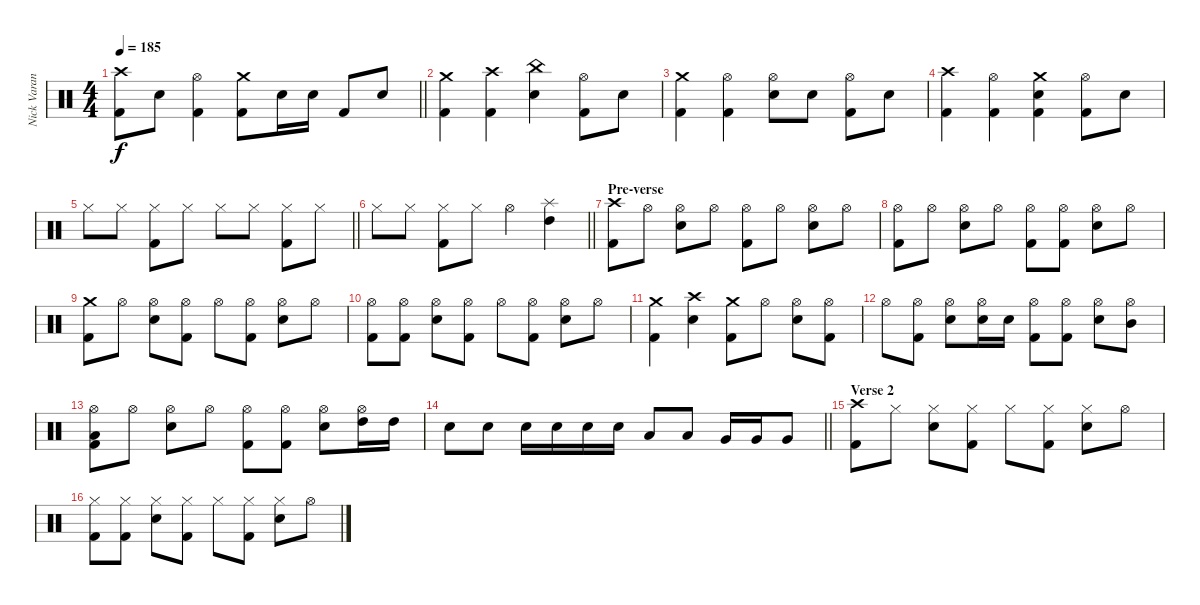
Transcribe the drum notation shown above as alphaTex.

\track ("Nick Varano (Drums)" "Nick Varan") {instrument percussion}
\staff {score}
\articulation defaults
\ts (4 4)
\tempo 185
\clef neutral
\barLineRight lightlight
\ks c
("Crash high (hit)" "Kick (hit) 2").8{dy f} "Electric Snare (hit)".8 ("Hi-Hat (open)" "Kick (hit) 2").4 ("Crash medium (hit)" "Kick (hit) 2").8 "Electric Snare (hit)".16 "Electric Snare (hit)".16 "Kick (hit) 2".8 "Electric Snare (hit)".8 |
("Crash medium (hit)" "Kick (hit) 2").4 ("Crash high (hit)" "Kick (hit) 2").4 ("China (hit)" "Electric Snare (hit)").4 ("Hi-Hat (open)" "Kick (hit) 2").8 "Electric Snare (hit)".8 |
("Crash medium (hit)" "Kick (hit) 2").4 ("Hi-Hat (open)" "Kick (hit) 2").4 ("Hi-Hat (open)" "Electric Snare (hit)").8 "Electric Snare (hit)".8 ("Hi-Hat (open)" "Kick (hit) 2").8 "Electric Snare (hit)".8 |
("Crash high (hit)" "Kick (hit) 2").4 ("Hi-Hat (open)" "Kick (hit) 2").4 ("Crash medium (hit)" "Electric Snare (hit)" "Kick (hit) 2").4 ("Hi-Hat (open)" "Kick (hit) 2").8 "Electric Snare (hit)".8 |
\barLineRight lightlight "Hi-Hat (closed)".8 "Hi-Hat (closed)".8
("Hi-Hat (closed)" "Kick (hit) 2").8 "Hi-Hat (closed)".8 "Hi-Hat (closed)".8 "Hi-Hat (closed)".8 ("Hi-Hat (closed)" "Kick (hit) 2").8 "Hi-Hat (closed)".8 |
\barLineRight lightlight "Hi-Hat (closed)".8 "Hi-Hat (closed)".8
("Hi-Hat (closed)" "Kick (hit) 2").8 "Hi-Hat (closed)".8 "Hi-Hat (open)".4 ("Splash (hit)" "High Tom (hit)").4 |
\section ("" "Pre-verse")
("Crash high (hit)" "Kick (hit) 2").8 "Hi-Hat (open)".8 ("Hi-Hat (open)" "Electric Snare (hit)").8 "Hi-Hat (open)".8 ("Hi-Hat (open)" "Kick (hit) 2").8 "Hi-Hat (open)".8 ("Hi-Hat (open)" "Electric Snare (hit)").8 "Hi-Hat (open)".8 |
("Hi-Hat (open)" "Kick (hit) 2").8 "Hi-Hat (open)".8 ("Hi-Hat (open)" "Electric Snare (hit)").8 "Hi-Hat (open)".8 ("Hi-Hat (open)" "Kick (hit) 2").8 ("Hi-Hat (open)" "Kick (hit) 2").8 ("Hi-Hat (open)" "Electric Snare (hit)").8 "Hi-Hat (open)".8 |
("Crash medium (hit)" "Kick (hit) 2").8 "Hi-Hat (open)".8 ("Hi-Hat (open)" "Electric Snare (hit)").8 ("Hi-Hat (open)" "Kick (hit) 2").8 "Hi-Hat (open)".8 ("Hi-Hat (open)" "Kick (hit) 2").8 ("Hi-Hat (open)" "Electric Snare (hit)").8 "Hi-Hat (open)".8 |
("Hi-Hat (open)" "Kick (hit) 2").8 ("Hi-Hat (open)" "Kick (hit) 2").8 ("Hi-Hat (open)" "Electric Snare (hit)").8 ("Hi-Hat (open)" "Kick (hit) 2").8 "Hi-Hat (open)".8 ("Hi-Hat (open)" "Kick (hit) 2").8 ("Hi-Hat (open)" "Electric Snare (hit)").8 "Hi-Hat (open)".8 |
("Crash medium (hit)" "Kick (hit) 2").4 ("Crash high (hit)" "Electric Snare (hit)").4 ("Crash medium (hit)" "Kick (hit) 2").8 "Hi-Hat (open)".8 ("Hi-Hat (open)" "Electric Snare (hit)").8 ("Hi-Hat (open)" "Kick (hit) 2").8 |
"Hi-Hat (open)".8 ("Hi-Hat (open)" "Kick (hit) 2").8 ("Hi-Hat (open)" "Electric Snare (hit)").8 ("Hi-Hat (open)" "Electric Snare (hit)").16 "Electric Snare (hit)".16 ("Hi-Hat (open)" "Kick (hit) 2").8 ("Hi-Hat (open)" "Kick (hit) 2").8 ("Hi-Hat (open)" "Electric Snare (hit)").8 ("Hi-Hat (open)" "Mid Tom (hit)").8 |
("Hi-Hat (open)" "Low Tom (hit)" "Kick (hit) 2").8 "Hi-Hat (open)".8 ("Hi-Hat (open)" "Electric Snare (hit)").8 "Hi-Hat (open)".8 ("Hi-Hat (open)" "Kick (hit) 2").8 ("Hi-Hat (open)" "Kick (hit) 2").8 ("Hi-Hat (open)" "Electric Snare (hit)").8 ("Hi-Hat (open)" "High Tom (hit)").16 "High Tom (hit)".16 |
\barLineRight lightlight "Electric Snare (hit)".8 "Electric Snare (hit)".8 "Electric Snare (hit)".16 "Electric Snare (hit)".16 "Electric Snare (hit)".16 "Electric Snare (hit)".16 "Low Tom (hit)".8 "Low Tom (hit)".8 "Very Low Tom (hit)".16 "Very Low Tom (hit)".16 "Very Low Tom (hit)".8
|
\section ("" "Verse 2")
("Crash high (hit)" "Kick (hit) 2").8 "Hi-Hat (closed)".8 ("Hi-Hat (closed)" "Electric Snare (hit)").8 ("Hi-Hat (closed)" "Kick (hit) 2").8 "Hi-Hat (closed)".8 ("Hi-Hat (closed)" "Kick (hit) 2").8 ("Hi-Hat (closed)" "Electric Snare (hit)").8 "Hi-Hat (open)".8 |
("Hi-Hat (closed)" "Kick (hit) 2").8 ("Hi-Hat (closed)" "Kick (hit) 2").8 ("Hi-Hat (closed)" "Electric Snare (hit)").8 ("Hi-Hat (closed)" "Kick (hit) 2").8 "Hi-Hat (closed)".8 ("Hi-Hat (closed)" "Kick (hit) 2").8 ("Hi-Hat (closed)" "Electric Snare (hit)").8 "Hi-Hat (open)".8
